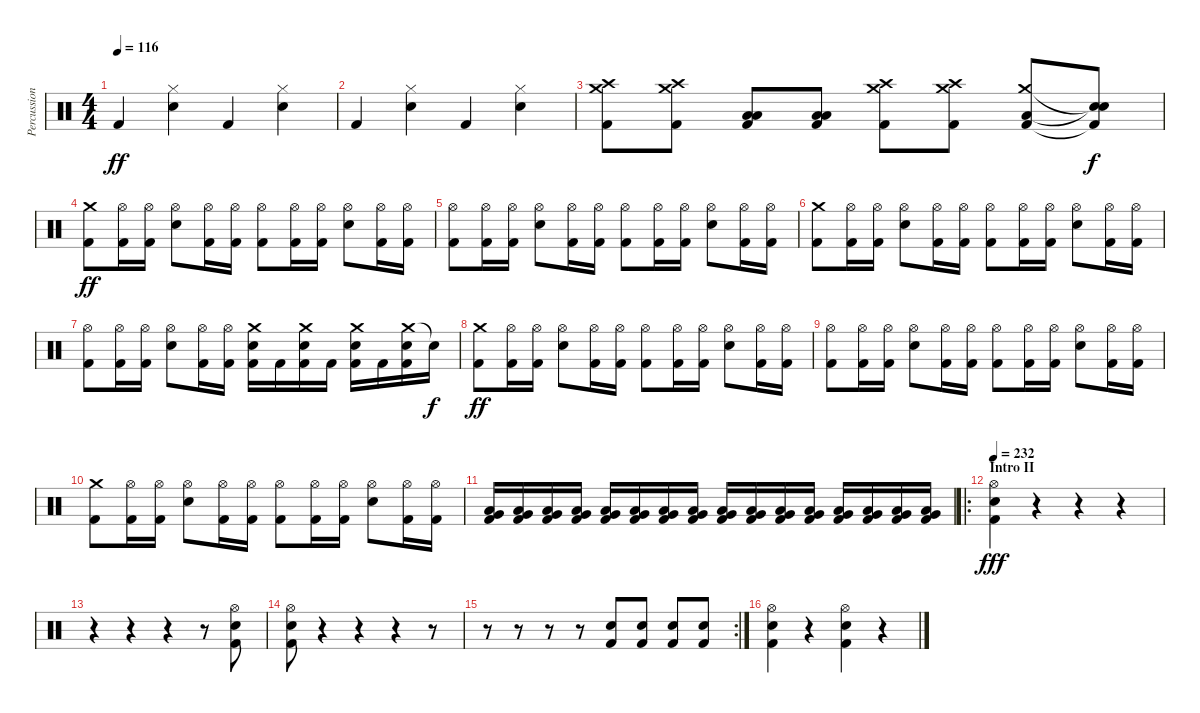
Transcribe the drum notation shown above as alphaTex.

\track ("Percussion" "Percussion") {instrument percussion}
\staff {score}
\articulation defaults
\ts (4 4)
\tempo 116
\clef neutral
\ks c "Kick (hit) 2".4{dy ff}
("Hi-Hat (closed)" "Snare (hit) 2").4 "Kick (hit) 2".4 ("Hi-Hat (closed)" "Snare (hit) 2").4 |
"Kick (hit) 2".4 ("Hi-Hat (closed)" "Snare (hit) 2").4 "Kick (hit) 2".4 ("Hi-Hat (closed)" "Snare (hit) 2").4 |
("Crash medium (hit)" "Crash high (hit)" "Kick (hit) 2").8 ("Crash medium (hit)" "Crash high (hit)" "Kick (hit) 2").8 ("Low Floor Tom (hit)" "Low Floor Tom (hit)" "Kick (hit) 2").8 ("Low Floor Tom (hit)" "Low Floor Tom (hit)" "Kick (hit) 2").8 ("Crash medium (hit)" "Crash high (hit)" "Kick (hit) 2").8 ("Crash medium (hit)" "Crash high (hit)" "Kick (hit) 2").8 ("Crash medium (hit)" "Low Floor Tom (hit)" "Kick (hit) 2").8 ("Snare (hit)"{t} "Snare (hit)"{t} "Kick (hit) 2"{t}).8{dy f} |
\section ("" "")
("Crash medium (hit)" "Kick (hit) 2").8{dy ff} ("Hi-Hat (open)" "Kick (hit) 2").16 ("Hi-Hat (open)" "Kick (hit) 2").16 ("Hi-Hat (open)" "Snare (hit) 2").8 ("Hi-Hat (open)" "Kick (hit) 2").16 ("Hi-Hat (open)" "Kick (hit) 2").16 ("Hi-Hat (open)" "Kick (hit) 2").8 ("Hi-Hat (open)" "Kick (hit) 2").16 ("Hi-Hat (open)" "Kick (hit) 2").16 ("Hi-Hat (open)" "Snare (hit) 2").8 ("Hi-Hat (open)" "Kick (hit) 2").16 ("Hi-Hat (open)" "Kick (hit) 2").16 |
("Hi-Hat (open)" "Kick (hit) 2").8 ("Hi-Hat (open)" "Kick (hit) 2").16 ("Hi-Hat (open)" "Kick (hit) 2").16 ("Hi-Hat (open)" "Snare (hit) 2").8 ("Hi-Hat (open)" "Kick (hit) 2").16 ("Hi-Hat (open)" "Kick (hit) 2").16 ("Hi-Hat (open)" "Kick (hit) 2").8 ("Hi-Hat (open)" "Kick (hit) 2").16 ("Hi-Hat (open)" "Kick (hit) 2").16 ("Hi-Hat (open)" "Snare (hit) 2").8 ("Hi-Hat (open)" "Kick (hit) 2").16 ("Hi-Hat (open)" "Kick (hit) 2").16 |
("Crash medium (hit)" "Kick (hit) 2").8 ("Hi-Hat (open)" "Kick (hit) 2").16 ("Hi-Hat (open)" "Kick (hit) 2").16 ("Hi-Hat (open)" "Snare (hit) 2").8 ("Hi-Hat (open)" "Kick (hit) 2").16 ("Hi-Hat (open)" "Kick (hit) 2").16 ("Hi-Hat (open)" "Kick (hit) 2").8 ("Hi-Hat (open)" "Kick (hit) 2").16 ("Hi-Hat (open)" "Kick (hit) 2").16 ("Hi-Hat (open)" "Snare (hit) 2").8 ("Hi-Hat (open)" "Kick (hit) 2").16 ("Hi-Hat (open)" "Kick (hit) 2").16 |
("Hi-Hat (open)" "Kick (hit) 2").8 ("Hi-Hat (open)" "Kick (hit) 2").16 ("Hi-Hat (open)" "Kick (hit) 2").16 ("Hi-Hat (open)" "Snare (hit) 2").8 ("Hi-Hat (open)" "Kick (hit) 2").16 ("Hi-Hat (open)" "Kick (hit) 2").16 ("Crash medium (hit)" "Snare (hit) 2" "Kick (hit) 2").16 "Kick (hit) 2".16 ("Crash medium (hit)" "Snare (hit) 2" "Kick (hit) 2").16 "Kick (hit) 2".16 ("Crash medium (hit)" "Snare (hit) 2" "Kick (hit) 2").16 "Kick (hit) 2".16 ("Crash medium (hit)" "Snare (hit) 2" "Kick (hit) 2").16 "Snare (hit)"{t}.16{dy f} |
("Crash medium (hit)" "Kick (hit) 2").8{dy ff} ("Hi-Hat (open)" "Kick (hit) 2").16 ("Hi-Hat (open)" "Kick (hit) 2").16 ("Hi-Hat (open)" "Snare (hit) 2").8 ("Hi-Hat (open)" "Kick (hit) 2").16 ("Hi-Hat (open)" "Kick (hit) 2").16 ("Hi-Hat (open)" "Kick (hit) 2").8 ("Hi-Hat (open)" "Kick (hit) 2").16 ("Hi-Hat (open)" "Kick (hit) 2").16 ("Hi-Hat (open)" "Snare (hit) 2").8 ("Hi-Hat (open)" "Kick (hit) 2").16 ("Hi-Hat (open)" "Kick (hit) 2").16 |
("Hi-Hat (open)" "Kick (hit) 2").8 ("Hi-Hat (open)" "Kick (hit) 2").16 ("Hi-Hat (open)" "Kick (hit) 2").16 ("Hi-Hat (open)" "Snare (hit) 2").8 ("Hi-Hat (open)" "Kick (hit) 2").16 ("Hi-Hat (open)" "Kick (hit) 2").16 ("Hi-Hat (open)" "Kick (hit) 2").8 ("Hi-Hat (open)" "Kick (hit) 2").16 ("Hi-Hat (open)" "Kick (hit) 2").16 ("Hi-Hat (open)" "Snare (hit) 2").8 ("Hi-Hat (open)" "Kick (hit) 2").16 ("Hi-Hat (open)" "Kick (hit) 2").16 |
("Crash medium (hit)" "Kick (hit) 2").8 ("Hi-Hat (open)" "Kick (hit) 2").16 ("Hi-Hat (open)" "Kick (hit) 2").16 ("Hi-Hat (open)" "Snare (hit) 2").8 ("Hi-Hat (open)" "Kick (hit) 2").16 ("Hi-Hat (open)" "Kick (hit) 2").16 ("Hi-Hat (open)" "Kick (hit) 2").8 ("Hi-Hat (open)" "Kick (hit) 2").16 ("Hi-Hat (open)" "Kick (hit) 2").16 ("Hi-Hat (open)" "Snare (hit) 2").8 ("Hi-Hat (open)" "Kick (hit) 2").16 ("Hi-Hat (open)" "Kick (hit) 2").16 |
("Very Low Tom (hit)" "Low Floor Tom (hit)" "Kick (hit) 2").16 ("Very Low Tom (hit)" "Low Floor Tom (hit)" "Kick (hit) 2").16 ("Very Low Tom (hit)" "Low Floor Tom (hit)" "Kick (hit) 2").16 ("Very Low Tom (hit)" "Low Floor Tom (hit)" "Kick (hit) 2").16 ("Very Low Tom (hit)" "Low Floor Tom (hit)" "Kick (hit) 2").16 ("Very Low Tom (hit)" "Low Floor Tom (hit)" "Kick (hit) 2").16 ("Very Low Tom (hit)" "Low Floor Tom (hit)" "Kick (hit) 2").16 ("Very Low Tom (hit)" "Low Floor Tom (hit)" "Kick (hit) 2").16 ("Very Low Tom (hit)" "Low Floor Tom (hit)" "Kick (hit) 2").16 ("Very Low Tom (hit)" "Low Floor Tom (hit)" "Kick (hit) 2").16 ("Very Low Tom (hit)" "Low Floor Tom (hit)" "Kick (hit) 2").16 ("Very Low Tom (hit)" "Low Floor Tom (hit)" "Kick (hit) 2").16 ("Very Low Tom (hit)" "Low Floor Tom (hit)" "Kick (hit) 2").16 ("Very Low Tom (hit)" "Low Floor Tom (hit)" "Kick (hit) 2").16 ("Very Low Tom (hit)" "Low Floor Tom (hit)" "Kick (hit) 2").16 ("Very Low Tom (hit)" "Low Floor Tom (hit)" "Kick (hit) 2").16 |
\ro
\section ("" "Intro II")
\tempo 204
\tempo 232
("Hi-Hat (open)" "Snare (hit) 2" "Kick (hit) 2").4{dy fff} r.4 r.4 r.4 |
r.4 r.4 r.4 r.8 ("Hi-Hat (open)" "Snare (hit) 2" "Kick (hit) 2").8 |
("Hi-Hat (open)" "Snare (hit) 2" "Kick (hit) 2").8 r.4 r.4 r.4 r.8 |
\rc 2
r.8 r.8 r.8 r.8 ("Snare (hit) 2" "Kick (hit) 2").8 ("Snare (hit) 2" "Kick (hit) 2").8 ("Snare (hit) 2" "Kick (hit) 2").8 ("Snare (hit) 2" "Kick (hit) 2").8 |
("Hi-Hat (open)" "Snare (hit) 2" "Kick (hit) 2").4 r.4 ("Hi-Hat (open)" "Snare (hit) 2" "Kick (hit) 2").4 r.4
